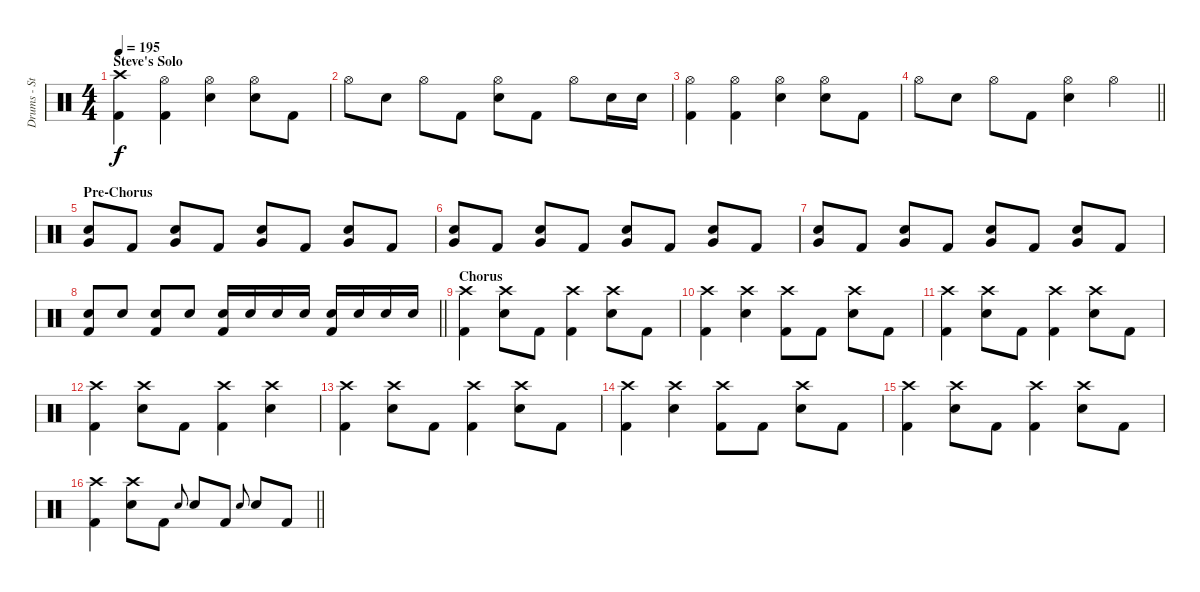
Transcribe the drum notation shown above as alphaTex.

\track ("Drums - Steve" "Drums - St") {instrument percussion}
\staff {score}
\articulation defaults
\ts (4 4)
\section ("" "Steve's Solo")
\tempo 195
\clef neutral
\ks c
("Crash high (hit)" "Kick (hit) 2").4{dy f} ("Hi-Hat (open)" "Kick (hit) 2").4 ("Hi-Hat (open)" "Snare (hit) 2").4 ("Hi-Hat (open)" "Snare (hit) 2").8 "Kick (hit) 2".8 |
"Hi-Hat (open)".8 "Snare (hit) 2".8 "Hi-Hat (open)".8 "Kick (hit) 2".8 ("Hi-Hat (open)" "Snare (hit) 2").8 "Kick (hit) 2".8 "Hi-Hat (open)".8 "Snare (hit) 2".16 "Snare (hit) 2".16 |
("Hi-Hat (open)" "Kick (hit) 2").4 ("Hi-Hat (open)" "Kick (hit) 2").4 ("Hi-Hat (open)" "Snare (hit) 2").4 ("Hi-Hat (open)" "Snare (hit) 2").8 "Kick (hit) 2".8 |
\barLineRight lightlight "Hi-Hat (open)".8 "Snare (hit) 2".8 "Hi-Hat (open)".8 "Kick (hit) 2".8
("Hi-Hat (open)" "Snare (hit) 2").4 "Hi-Hat (open)".4 |
\section ("" "Pre-Chorus")
("Snare (hit) 2" "Very Low Tom (hit)").8 "Kick (hit) 2".8 ("Snare (hit) 2" "Very Low Tom (hit)").8 "Kick (hit) 2".8 ("Snare (hit) 2" "Very Low Tom (hit)").8 "Kick (hit) 2".8 ("Snare (hit) 2" "Very Low Tom (hit)").8 "Kick (hit) 2".8 |
("Snare (hit) 2" "Very Low Tom (hit)").8 "Kick (hit) 2".8 ("Snare (hit) 2" "Very Low Tom (hit)").8 "Kick (hit) 2".8 ("Snare (hit) 2" "Very Low Tom (hit)").8 "Kick (hit) 2".8 ("Snare (hit) 2" "Very Low Tom (hit)").8 "Kick (hit) 2".8 |
("Snare (hit) 2" "Very Low Tom (hit)").8 "Kick (hit) 2".8 ("Snare (hit) 2" "Very Low Tom (hit)").8 "Kick (hit) 2".8 ("Snare (hit) 2" "Very Low Tom (hit)").8 "Kick (hit) 2".8 ("Snare (hit) 2" "Very Low Tom (hit)").8 "Kick (hit) 2".8 |
\barLineRight lightlight
("Snare (hit) 2" "Kick (hit) 2").8 "Snare (hit) 2".8 ("Snare (hit) 2" "Kick (hit) 2").8 "Snare (hit) 2".8 ("Snare (hit) 2" "Kick (hit) 2").16 "Snare (hit) 2".16 "Snare (hit) 2".16 "Snare (hit) 2".16 ("Snare (hit) 2" "Kick (hit) 2").16 "Snare (hit) 2".16 "Snare (hit) 2".16 "Snare (hit) 2".16 |
\section ("" "Chorus")
("Crash high (hit)" "Kick (hit) 2").4 ("Crash high (hit)" "Snare (hit) 2").8 "Kick (hit) 2".8 ("Crash high (hit)" "Kick (hit) 2").4 ("Crash high (hit)" "Snare (hit) 2").8 "Kick (hit) 2".8 |
("Crash high (hit)" "Kick (hit) 2").4 ("Crash high (hit)" "Snare (hit) 2").4 ("Crash high (hit)" "Kick (hit) 2").8 "Kick (hit) 2".8 ("Crash high (hit)" "Snare (hit) 2").8 "Kick (hit) 2".8 |
("Crash high (hit)" "Kick (hit) 2").4 ("Crash high (hit)" "Snare (hit) 2").8 "Kick (hit) 2".8 ("Crash high (hit)" "Kick (hit) 2").4 ("Crash high (hit)" "Snare (hit) 2").8 "Kick (hit) 2".8 |
("Crash high (hit)" "Kick (hit) 2").4 ("Crash high (hit)" "Snare (hit) 2").8 "Kick (hit) 2".8 ("Crash high (hit)" "Kick (hit) 2").4 ("Crash high (hit)" "Snare (hit) 2").4 |
("Crash high (hit)" "Kick (hit) 2").4 ("Crash high (hit)" "Snare (hit) 2").8 "Kick (hit) 2".8 ("Crash high (hit)" "Kick (hit) 2").4 ("Crash high (hit)" "Snare (hit) 2").8 "Kick (hit) 2".8 |
("Crash high (hit)" "Kick (hit) 2").4 ("Crash high (hit)" "Snare (hit) 2").4 ("Crash high (hit)" "Kick (hit) 2").8 "Kick (hit) 2".8 ("Crash high (hit)" "Snare (hit) 2").8 "Kick (hit) 2".8 |
("Crash high (hit)" "Kick (hit) 2").4 ("Crash high (hit)" "Snare (hit) 2").8 "Kick (hit) 2".8 ("Crash high (hit)" "Kick (hit) 2").4 ("Crash high (hit)" "Snare (hit) 2").8 "Kick (hit) 2".8 |
\barLineRight lightlight
("Crash high (hit)" "Kick (hit) 2").4 ("Crash high (hit)" "Snare (hit) 2").8 "Kick (hit) 2".8 "Snare (hit) 2".8{gr onbeat} "Snare (hit) 2".8 "Kick (hit) 2".8 "Snare (hit) 2".8{gr onbeat} "Snare (hit) 2".8 "Kick (hit) 2".8
